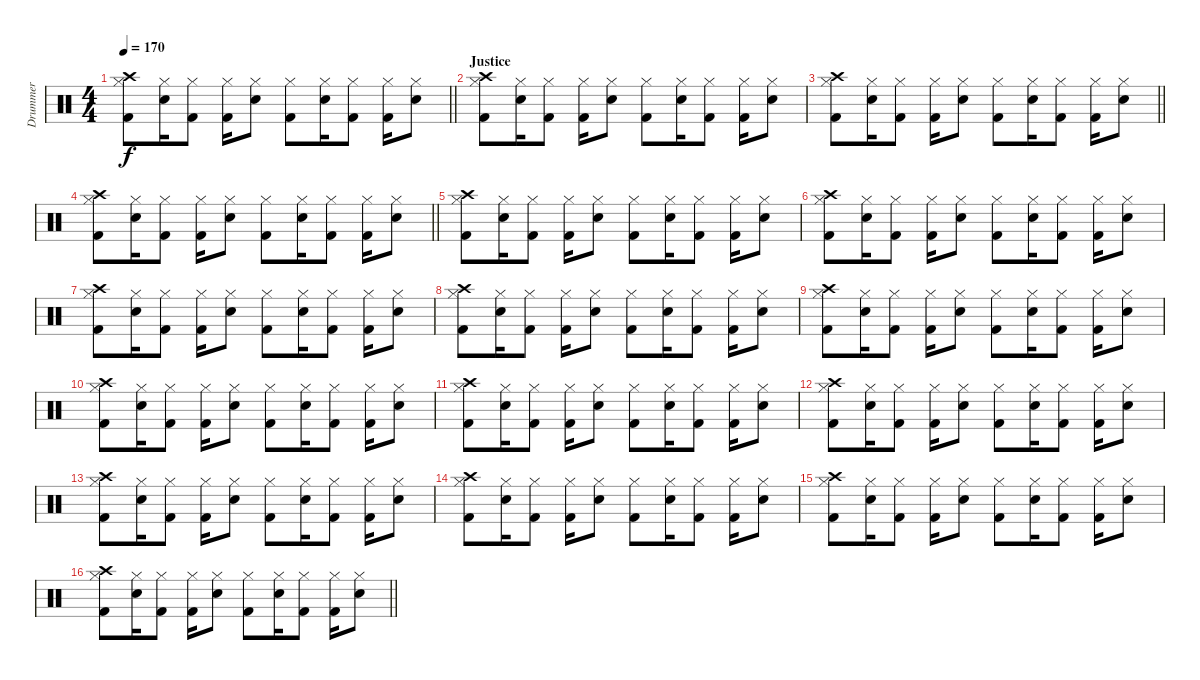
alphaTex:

\track ("Drummer" "Drummer") {instrument percussion}
\staff {score}
\articulation defaults
\ts (4 4)
\tempo 170
\clef neutral
\barLineRight lightlight
\ks c
("Kick (hit) 2" "Hi-Hat (closed)" "Crash high (hit)").8{dy f} ("Electric Snare (hit)" "Hi-Hat (closed)").16 ("Kick (hit) 2" "Hi-Hat (closed)").8 ("Kick (hit) 2" "Hi-Hat (closed)").16 ("Electric Snare (hit)" "Hi-Hat (closed)").8 ("Kick (hit) 2" "Hi-Hat (closed)").8 ("Electric Snare (hit)" "Hi-Hat (closed)").16 ("Kick (hit) 2" "Hi-Hat (closed)").8 ("Kick (hit) 2" "Hi-Hat (closed)").16 ("Electric Snare (hit)" "Hi-Hat (closed)").8 |
\section ("" "Justice")
("Kick (hit) 2" "Hi-Hat (closed)" "Crash high (hit)").8 ("Electric Snare (hit)" "Hi-Hat (closed)").16 ("Kick (hit) 2" "Hi-Hat (closed)").8 ("Kick (hit) 2" "Hi-Hat (closed)").16 ("Electric Snare (hit)" "Hi-Hat (closed)").8 ("Kick (hit) 2" "Hi-Hat (closed)").8 ("Electric Snare (hit)" "Hi-Hat (closed)").16 ("Kick (hit) 2" "Hi-Hat (closed)").8 ("Kick (hit) 2" "Hi-Hat (closed)").16 ("Electric Snare (hit)" "Hi-Hat (closed)").8 |
\barLineRight lightlight
("Kick (hit) 2" "Hi-Hat (closed)" "Crash high (hit)").8 ("Electric Snare (hit)" "Hi-Hat (closed)").16 ("Kick (hit) 2" "Hi-Hat (closed)").8 ("Kick (hit) 2" "Hi-Hat (closed)").16 ("Electric Snare (hit)" "Hi-Hat (closed)").8 ("Kick (hit) 2" "Hi-Hat (closed)").8 ("Electric Snare (hit)" "Hi-Hat (closed)").16 ("Kick (hit) 2" "Hi-Hat (closed)").8 ("Kick (hit) 2" "Hi-Hat (closed)").16 ("Electric Snare (hit)" "Hi-Hat (closed)").8 |
\barLineRight lightlight
("Kick (hit) 2" "Hi-Hat (closed)" "Crash high (hit)").8 ("Electric Snare (hit)" "Hi-Hat (closed)").16 ("Kick (hit) 2" "Hi-Hat (closed)").8 ("Kick (hit) 2" "Hi-Hat (closed)").16 ("Electric Snare (hit)" "Hi-Hat (closed)").8 ("Kick (hit) 2" "Hi-Hat (closed)").8 ("Electric Snare (hit)" "Hi-Hat (closed)").16 ("Kick (hit) 2" "Hi-Hat (closed)").8 ("Kick (hit) 2" "Hi-Hat (closed)").16 ("Electric Snare (hit)" "Hi-Hat (closed)").8 |
("Kick (hit) 2" "Hi-Hat (closed)" "Crash high (hit)").8 ("Electric Snare (hit)" "Hi-Hat (closed)").16 ("Kick (hit) 2" "Hi-Hat (closed)").8 ("Kick (hit) 2" "Hi-Hat (closed)").16 ("Electric Snare (hit)" "Hi-Hat (closed)").8 ("Kick (hit) 2" "Hi-Hat (closed)").8 ("Electric Snare (hit)" "Hi-Hat (closed)").16 ("Kick (hit) 2" "Hi-Hat (closed)").8 ("Kick (hit) 2" "Hi-Hat (closed)").16 ("Electric Snare (hit)" "Hi-Hat (closed)").8 |
("Kick (hit) 2" "Hi-Hat (closed)" "Crash high (hit)").8 ("Electric Snare (hit)" "Hi-Hat (closed)").16 ("Kick (hit) 2" "Hi-Hat (closed)").8 ("Kick (hit) 2" "Hi-Hat (closed)").16 ("Electric Snare (hit)" "Hi-Hat (closed)").8 ("Kick (hit) 2" "Hi-Hat (closed)").8 ("Electric Snare (hit)" "Hi-Hat (closed)").16 ("Kick (hit) 2" "Hi-Hat (closed)").8 ("Kick (hit) 2" "Hi-Hat (closed)").16 ("Electric Snare (hit)" "Hi-Hat (closed)").8 |
("Kick (hit) 2" "Hi-Hat (closed)" "Crash high (hit)").8 ("Electric Snare (hit)" "Hi-Hat (closed)").16 ("Kick (hit) 2" "Hi-Hat (closed)").8 ("Kick (hit) 2" "Hi-Hat (closed)").16 ("Electric Snare (hit)" "Hi-Hat (closed)").8 ("Kick (hit) 2" "Hi-Hat (closed)").8 ("Electric Snare (hit)" "Hi-Hat (closed)").16 ("Kick (hit) 2" "Hi-Hat (closed)").8 ("Kick (hit) 2" "Hi-Hat (closed)").16 ("Electric Snare (hit)" "Hi-Hat (closed)").8 |
("Kick (hit) 2" "Hi-Hat (closed)" "Crash high (hit)").8 ("Electric Snare (hit)" "Hi-Hat (closed)").16 ("Kick (hit) 2" "Hi-Hat (closed)").8 ("Kick (hit) 2" "Hi-Hat (closed)").16 ("Electric Snare (hit)" "Hi-Hat (closed)").8 ("Kick (hit) 2" "Hi-Hat (closed)").8 ("Electric Snare (hit)" "Hi-Hat (closed)").16 ("Kick (hit) 2" "Hi-Hat (closed)").8 ("Kick (hit) 2" "Hi-Hat (closed)").16 ("Electric Snare (hit)" "Hi-Hat (closed)").8 |
("Kick (hit) 2" "Hi-Hat (closed)" "Crash high (hit)").8 ("Electric Snare (hit)" "Hi-Hat (closed)").16 ("Kick (hit) 2" "Hi-Hat (closed)").8 ("Kick (hit) 2" "Hi-Hat (closed)").16 ("Electric Snare (hit)" "Hi-Hat (closed)").8 ("Kick (hit) 2" "Hi-Hat (closed)").8 ("Electric Snare (hit)" "Hi-Hat (closed)").16 ("Kick (hit) 2" "Hi-Hat (closed)").8 ("Kick (hit) 2" "Hi-Hat (closed)").16 ("Electric Snare (hit)" "Hi-Hat (closed)").8 |
("Kick (hit) 2" "Hi-Hat (closed)" "Crash high (hit)").8 ("Electric Snare (hit)" "Hi-Hat (closed)").16 ("Kick (hit) 2" "Hi-Hat (closed)").8 ("Kick (hit) 2" "Hi-Hat (closed)").16 ("Electric Snare (hit)" "Hi-Hat (closed)").8 ("Kick (hit) 2" "Hi-Hat (closed)").8 ("Electric Snare (hit)" "Hi-Hat (closed)").16 ("Kick (hit) 2" "Hi-Hat (closed)").8 ("Kick (hit) 2" "Hi-Hat (closed)").16 ("Electric Snare (hit)" "Hi-Hat (closed)").8 |
("Kick (hit) 2" "Hi-Hat (closed)" "Crash high (hit)").8 ("Electric Snare (hit)" "Hi-Hat (closed)").16 ("Kick (hit) 2" "Hi-Hat (closed)").8 ("Kick (hit) 2" "Hi-Hat (closed)").16 ("Electric Snare (hit)" "Hi-Hat (closed)").8 ("Kick (hit) 2" "Hi-Hat (closed)").8 ("Electric Snare (hit)" "Hi-Hat (closed)").16 ("Kick (hit) 2" "Hi-Hat (closed)").8 ("Kick (hit) 2" "Hi-Hat (closed)").16 ("Electric Snare (hit)" "Hi-Hat (closed)").8 |
("Kick (hit) 2" "Hi-Hat (closed)" "Crash high (hit)").8 ("Electric Snare (hit)" "Hi-Hat (closed)").16 ("Kick (hit) 2" "Hi-Hat (closed)").8 ("Kick (hit) 2" "Hi-Hat (closed)").16 ("Electric Snare (hit)" "Hi-Hat (closed)").8 ("Kick (hit) 2" "Hi-Hat (closed)").8 ("Electric Snare (hit)" "Hi-Hat (closed)").16 ("Kick (hit) 2" "Hi-Hat (closed)").8 ("Kick (hit) 2" "Hi-Hat (closed)").16 ("Electric Snare (hit)" "Hi-Hat (closed)").8 |
("Kick (hit) 2" "Hi-Hat (closed)" "Crash high (hit)").8 ("Electric Snare (hit)" "Hi-Hat (closed)").16 ("Kick (hit) 2" "Hi-Hat (closed)").8 ("Kick (hit) 2" "Hi-Hat (closed)").16 ("Electric Snare (hit)" "Hi-Hat (closed)").8 ("Kick (hit) 2" "Hi-Hat (closed)").8 ("Electric Snare (hit)" "Hi-Hat (closed)").16 ("Kick (hit) 2" "Hi-Hat (closed)").8 ("Kick (hit) 2" "Hi-Hat (closed)").16 ("Electric Snare (hit)" "Hi-Hat (closed)").8 |
("Kick (hit) 2" "Hi-Hat (closed)" "Crash high (hit)").8 ("Electric Snare (hit)" "Hi-Hat (closed)").16 ("Kick (hit) 2" "Hi-Hat (closed)").8 ("Kick (hit) 2" "Hi-Hat (closed)").16 ("Electric Snare (hit)" "Hi-Hat (closed)").8 ("Kick (hit) 2" "Hi-Hat (closed)").8 ("Electric Snare (hit)" "Hi-Hat (closed)").16 ("Kick (hit) 2" "Hi-Hat (closed)").8 ("Kick (hit) 2" "Hi-Hat (closed)").16 ("Electric Snare (hit)" "Hi-Hat (closed)").8 |
("Kick (hit) 2" "Hi-Hat (closed)" "Crash high (hit)").8 ("Electric Snare (hit)" "Hi-Hat (closed)").16 ("Kick (hit) 2" "Hi-Hat (closed)").8 ("Kick (hit) 2" "Hi-Hat (closed)").16 ("Electric Snare (hit)" "Hi-Hat (closed)").8 ("Kick (hit) 2" "Hi-Hat (closed)").8 ("Electric Snare (hit)" "Hi-Hat (closed)").16 ("Kick (hit) 2" "Hi-Hat (closed)").8 ("Kick (hit) 2" "Hi-Hat (closed)").16 ("Electric Snare (hit)" "Hi-Hat (closed)").8 |
\barLineRight lightlight
("Kick (hit) 2" "Hi-Hat (closed)" "Crash high (hit)").8 ("Electric Snare (hit)" "Hi-Hat (closed)").16 ("Kick (hit) 2" "Hi-Hat (closed)").8 ("Kick (hit) 2" "Hi-Hat (closed)").16 ("Electric Snare (hit)" "Hi-Hat (closed)").8 ("Kick (hit) 2" "Hi-Hat (closed)").8 ("Electric Snare (hit)" "Hi-Hat (closed)").16 ("Kick (hit) 2" "Hi-Hat (closed)").8 ("Kick (hit) 2" "Hi-Hat (closed)").16 ("Electric Snare (hit)" "Hi-Hat (closed)").8
